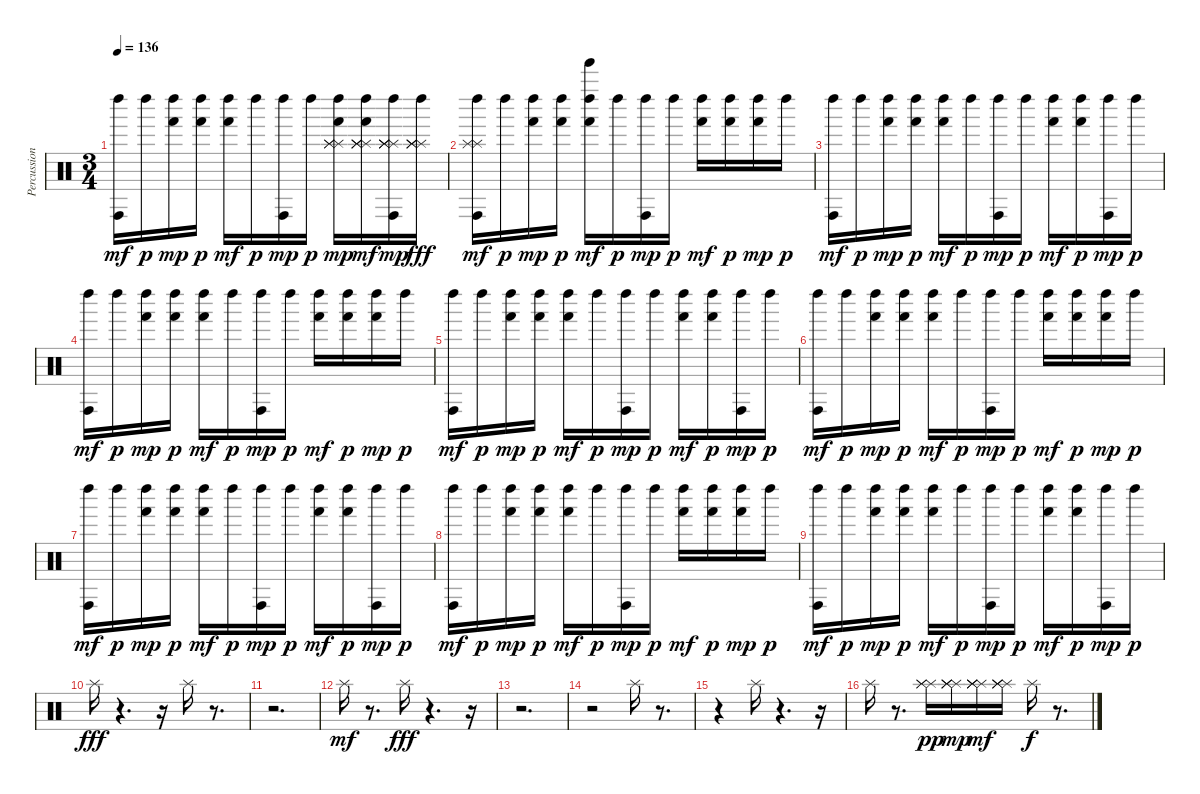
\track ("Percussion" "Percussion") {instrument percussion}
\staff {score}
\articulation defaults
\ts (3 4)
\tempo 136
\clef neutral
\ks c
("Conga high (hit)" "Left Maraca (hit)").16{dy mf} "Left Maraca (hit)".16{dy p} ("Hand (hit)" "Left Maraca (hit)").16{dy mp} ("Hand (hit)" "Left Maraca (hit)").16{dy p} ("Hand (hit)" "Left Maraca (hit)").16{dy mf} "Left Maraca (hit)".16{dy p} ("Conga high (hit)" "Left Maraca (hit)").16{dy mp} "Left Maraca (hit)".16{dy p} ("Hand (hit)" "Splash (hit)" "Left Maraca (hit)" "Splash (hit)" "Splash (hit)").16{dy mp} ("Splash (hit)" "Hand (hit)" "Splash (hit)" "Left Maraca (hit)" "Splash (hit)" "Splash (hit)").16{dy mf} ("Splash (hit)" "Conga high (hit)" "Splash (hit)" "Left Maraca (hit)" "Splash (hit)" "Splash (hit)").16{dy mp} ("Splash (hit)" "Splash (hit)" "Left Maraca (hit)" "Splash (hit)" "Splash (hit)").16{dy fff} |
("Splash (hit)" "Splash (hit)" "Conga high (hit)" "Left Maraca (hit)").16{dy mf} "Left Maraca (hit)".16{dy p} ("Hand (hit)" "Left Maraca (hit)").16{dy mp} ("Hand (hit)" "Left Maraca (hit)").16{dy p} ("Hand (hit)" "Tinkle Bell (hit)" "Left Maraca (hit)").16{dy mf} "Left Maraca (hit)".16{dy p} ("Conga high (hit)" "Left Maraca (hit)").16{dy mp} "Left Maraca (hit)".16{dy p} ("Hand (hit)" "Left Maraca (hit)").16{dy mf} ("Hand (hit)" "Left Maraca (hit)").16{dy p} ("Hand (hit)" "Left Maraca (hit)").16{dy mp} "Left Maraca (hit)".16{dy p} |
("Conga high (hit)" "Left Maraca (hit)").16{dy mf} "Left Maraca (hit)".16{dy p} ("Hand (hit)" "Left Maraca (hit)").16{dy mp} ("Hand (hit)" "Left Maraca (hit)").16{dy p} ("Hand (hit)" "Left Maraca (hit)").16{dy mf} "Left Maraca (hit)".16{dy p} ("Conga high (hit)" "Left Maraca (hit)").16{dy mp} "Left Maraca (hit)".16{dy p} ("Hand (hit)" "Left Maraca (hit)").16{dy mf} ("Hand (hit)" "Left Maraca (hit)").16{dy p} ("Conga high (hit)" "Left Maraca (hit)").16{dy mp} "Left Maraca (hit)".16{dy p} |
("Conga high (hit)" "Left Maraca (hit)").16{dy mf} "Left Maraca (hit)".16{dy p} ("Hand (hit)" "Left Maraca (hit)").16{dy mp} ("Hand (hit)" "Left Maraca (hit)").16{dy p} ("Hand (hit)" "Left Maraca (hit)").16{dy mf} "Left Maraca (hit)".16{dy p} ("Conga high (hit)" "Left Maraca (hit)").16{dy mp} "Left Maraca (hit)".16{dy p} ("Hand (hit)" "Left Maraca (hit)").16{dy mf} ("Hand (hit)" "Left Maraca (hit)").16{dy p} ("Hand (hit)" "Left Maraca (hit)").16{dy mp} "Left Maraca (hit)".16{dy p} |
("Conga high (hit)" "Left Maraca (hit)").16{dy mf} "Left Maraca (hit)".16{dy p} ("Hand (hit)" "Left Maraca (hit)").16{dy mp} ("Hand (hit)" "Left Maraca (hit)").16{dy p} ("Hand (hit)" "Left Maraca (hit)").16{dy mf} "Left Maraca (hit)".16{dy p} ("Conga high (hit)" "Left Maraca (hit)").16{dy mp} "Left Maraca (hit)".16{dy p} ("Hand (hit)" "Left Maraca (hit)").16{dy mf} ("Hand (hit)" "Left Maraca (hit)").16{dy p} ("Conga high (hit)" "Left Maraca (hit)").16{dy mp} "Left Maraca (hit)".16{dy p} |
("Conga high (hit)" "Left Maraca (hit)").16{dy mf} "Left Maraca (hit)".16{dy p} ("Hand (hit)" "Left Maraca (hit)").16{dy mp} ("Hand (hit)" "Left Maraca (hit)").16{dy p} ("Hand (hit)" "Left Maraca (hit)").16{dy mf} "Left Maraca (hit)".16{dy p} ("Conga high (hit)" "Left Maraca (hit)").16{dy mp} "Left Maraca (hit)".16{dy p} ("Hand (hit)" "Left Maraca (hit)").16{dy mf} ("Hand (hit)" "Left Maraca (hit)").16{dy p} ("Hand (hit)" "Left Maraca (hit)").16{dy mp} "Left Maraca (hit)".16{dy p} |
("Conga high (hit)" "Left Maraca (hit)").16{dy mf} "Left Maraca (hit)".16{dy p} ("Hand (hit)" "Left Maraca (hit)").16{dy mp} ("Hand (hit)" "Left Maraca (hit)").16{dy p} ("Hand (hit)" "Left Maraca (hit)").16{dy mf} "Left Maraca (hit)".16{dy p} ("Conga high (hit)" "Left Maraca (hit)").16{dy mp} "Left Maraca (hit)".16{dy p} ("Hand (hit)" "Left Maraca (hit)").16{dy mf} ("Hand (hit)" "Left Maraca (hit)").16{dy p} ("Conga high (hit)" "Left Maraca (hit)").16{dy mp} "Left Maraca (hit)".16{dy p} |
("Conga high (hit)" "Left Maraca (hit)").16{dy mf} "Left Maraca (hit)".16{dy p} ("Hand (hit)" "Left Maraca (hit)").16{dy mp} ("Hand (hit)" "Left Maraca (hit)").16{dy p} ("Hand (hit)" "Left Maraca (hit)").16{dy mf} "Left Maraca (hit)".16{dy p} ("Conga high (hit)" "Left Maraca (hit)").16{dy mp} "Left Maraca (hit)".16{dy p} ("Hand (hit)" "Left Maraca (hit)").16{dy mf} ("Hand (hit)" "Left Maraca (hit)").16{dy p} ("Hand (hit)" "Left Maraca (hit)").16{dy mp} "Left Maraca (hit)".16{dy p} |
("Conga high (hit)" "Left Maraca (hit)").16{dy mf} "Left Maraca (hit)".16{dy p} ("Hand (hit)" "Left Maraca (hit)").16{dy mp} ("Hand (hit)" "Left Maraca (hit)").16{dy p} ("Hand (hit)" "Left Maraca (hit)").16{dy mf} "Left Maraca (hit)".16{dy p} ("Conga high (hit)" "Left Maraca (hit)").16{dy mp} "Left Maraca (hit)".16{dy p} ("Hand (hit)" "Left Maraca (hit)").16{dy mf} ("Hand (hit)" "Left Maraca (hit)").16{dy p} ("Conga high (hit)" "Left Maraca (hit)").16{dy mp} "Left Maraca (hit)".16{dy p} |
"Splash (hit)".16{dy fff} r.4{d} r.16 "Splash (hit)".16 r.8{d} |
r.2{d} |
"Splash (hit)".16{dy mf} r.8{d} "Splash (hit)".16{dy fff} r.4{d} r.16 |
r.2{d} |
r.2 "Splash (hit)".16 r.8{d} |
r.4 "Splash (hit)".16 r.4{d} r.16 |
"Splash (hit)".16 r.8{d} ("Splash (hit)" "Splash (hit)" "Splash (hit)").16{dy pp} ("Splash (hit)" "Splash (hit)" "Splash (hit)" "Splash (hit)").16{dy mp} ("Splash (hit)" "Splash (hit)" "Splash (hit)" "Splash (hit)").16{dy mf} ("Splash (hit)" "Splash (hit)" "Splash (hit)" "Splash (hit)").16 "Splash (hit)".16{dy f} r.8{d}
